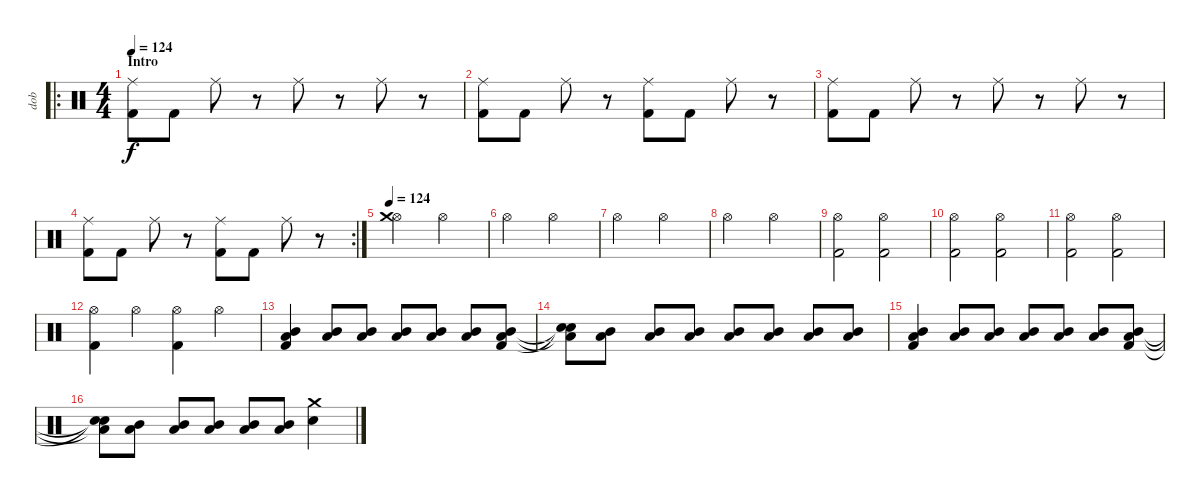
\track ("dob" "dob") {instrument percussion}
\staff {score}
\articulation defaults
\ro
\ts (4 4)
\section ("" "Intro")
\tempo 124
\tempo 110
\tempo 124
\clef neutral
\ks c
("Ride (middle)" "Kick (hit) 2").8{dy f} "Kick (hit) 2".8 "Ride (middle)".8 r.8 "Ride (middle)".8 r.8 "Ride (middle)".8 r.8 |
("Ride (middle)" "Kick (hit) 2").8 "Kick (hit) 2".8 "Ride (middle)".8 r.8 ("Ride (middle)" "Kick (hit) 2").8 "Kick (hit) 2".8 "Ride (middle)".8 r.8 |
("Ride (middle)" "Kick (hit) 2").8 "Kick (hit) 2".8 "Ride (middle)".8 r.8 "Ride (middle)".8 r.8 "Ride (middle)".8 r.8 |
\rc 2
("Ride (middle)" "Kick (hit) 2").8 "Kick (hit) 2".8 "Ride (middle)".8 r.8 ("Ride (middle)" "Kick (hit) 2").8 "Kick (hit) 2".8 "Ride (middle)".8 r.8 |
\tempo 124
("Hi-Hat (open)" "Crash medium (hit)").2 "Hi-Hat (open)".2 |
"Hi-Hat (open)".2 "Hi-Hat (open)".2 |
"Hi-Hat (open)".2 "Hi-Hat (open)".2 |
"Hi-Hat (open)".2 "Hi-Hat (open)".2 |
("Hi-Hat (open)" "Kick (hit) 2").2 ("Hi-Hat (open)" "Kick (hit) 2").2 |
("Hi-Hat (open)" "Kick (hit) 2").2 ("Hi-Hat (open)" "Kick (hit) 2").2 |
("Hi-Hat (open)" "Kick (hit) 2").2 ("Hi-Hat (open)" "Kick (hit) 2").2 |
("Hi-Hat (open)" "Kick (hit) 2").4 "Hi-Hat (open)".4 ("Hi-Hat (open)" "Kick (hit) 2").4 "Hi-Hat (open)".4 |
("Kick (hit) 2" "Mid Tom (hit)" "Low Tom (hit)").4 ("Mid Tom (hit)" "Low Tom (hit)").8 ("Mid Tom (hit)" "Low Tom (hit)").8 ("Mid Tom (hit)" "Low Tom (hit)").8 ("Mid Tom (hit)" "Low Tom (hit)").8 ("Mid Tom (hit)" "Low Tom (hit)").8 ("Kick (hit) 2" "Mid Tom (hit)" "Low Tom (hit)").8 |
("Snare (hit)"{t} "Snare (hit)"{t} "Low Tom (hit)"{t}).8 ("Mid Tom (hit)" "Low Tom (hit)").8 ("Mid Tom (hit)" "Low Tom (hit)").8 ("Mid Tom (hit)" "Low Tom (hit)").8 ("Mid Tom (hit)" "Low Tom (hit)").8 ("Mid Tom (hit)" "Low Tom (hit)").8 ("Mid Tom (hit)" "Low Tom (hit)").8 ("Mid Tom (hit)" "Low Tom (hit)").8 |
("Kick (hit) 2" "Mid Tom (hit)" "Low Tom (hit)").4 ("Mid Tom (hit)" "Low Tom (hit)").8 ("Mid Tom (hit)" "Low Tom (hit)").8 ("Mid Tom (hit)" "Low Tom (hit)").8 ("Mid Tom (hit)" "Low Tom (hit)").8 ("Mid Tom (hit)" "Low Tom (hit)").8 ("Kick (hit) 2" "Mid Tom (hit)" "Low Tom (hit)").8 |
("Snare (hit)"{t} "Snare (hit)"{t} "Low Tom (hit)"{t}).8 ("Mid Tom (hit)" "Low Tom (hit)").8 ("Mid Tom (hit)" "Low Tom (hit)").8 ("Mid Tom (hit)" "Low Tom (hit)").8 ("Mid Tom (hit)" "Low Tom (hit)").8 ("Mid Tom (hit)" "Low Tom (hit)").8 ("Crash medium (hit)" "Snare (hit) 2").4
